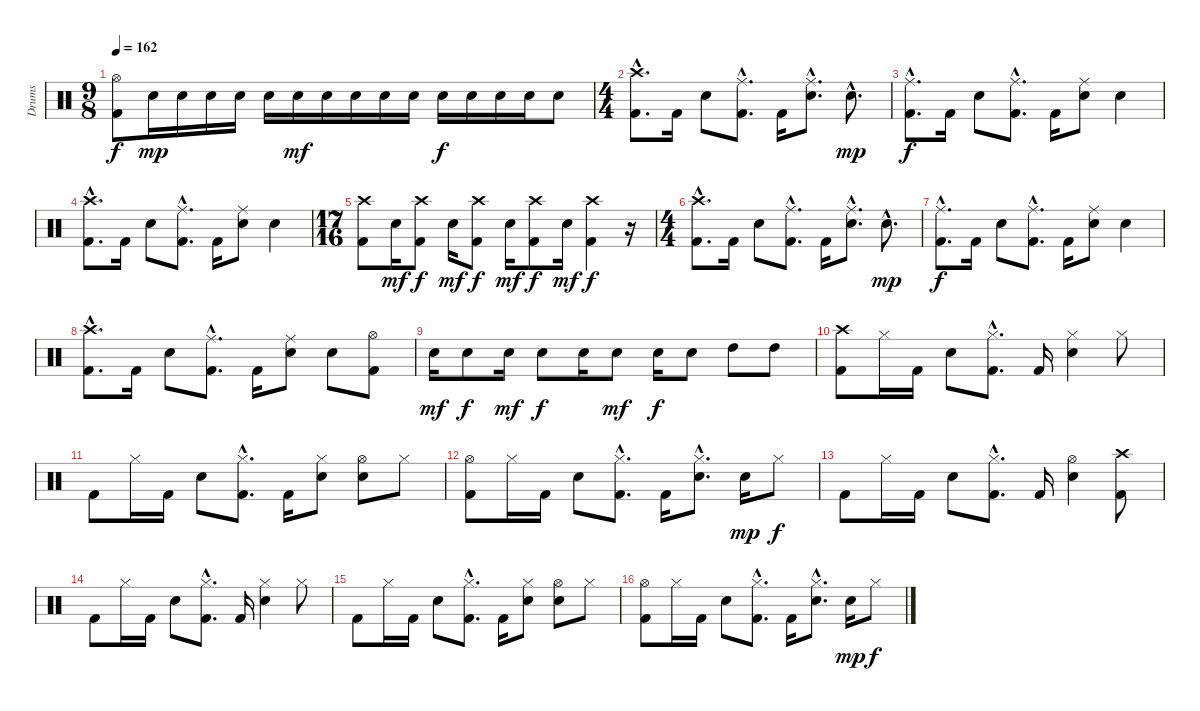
\track ("Drums" "Drums") {instrument percussion}
\staff {score}
\articulation defaults
\ts (9 8)
\tempo 162
\clef neutral
\ks c
("Hi-Hat (open)" "Kick (hit) 2").8{dy f} "Electric Snare (hit)".16{dy mp} "Electric Snare (hit)".16 "Electric Snare (hit)".16 "Electric Snare (hit)".16 "Electric Snare (hit)".16 "Electric Snare (hit)".16{dy mf} "Electric Snare (hit)".16 "Electric Snare (hit)".16 "Electric Snare (hit)".16 "Electric Snare (hit)".16 "Electric Snare (hit)".16{dy f} "Electric Snare (hit)".16 "Electric Snare (hit)".16 "Electric Snare (hit)".16 "Electric Snare (hit)".8 |
\ts (4 4)
("Crash high (hit)"{hac} "Kick (hit) 2"{hac}).8{d} "Kick (hit) 2".16 "Electric Snare (hit)".8 ("Ride (middle)"{hac} "Kick (hit) 2"{hac}).8{d} "Kick (hit) 2".16 ("Ride (middle)"{hac} "Electric Snare (hit)"{hac}).8{d} "Electric Snare (hit)"{hac}.8{d dy mp} |
("Ride (middle)"{hac} "Kick (hit) 2"{hac}).8{d dy f} "Kick (hit) 2".16 "Electric Snare (hit)".8 ("Ride (middle)"{hac} "Kick (hit) 2"{hac}).8{d} "Kick (hit) 2".16 ("Ride (middle)" "Electric Snare (hit)").8 "Electric Snare (hit)".4 |
("Crash high (hit)"{hac} "Kick (hit) 2"{hac}).8{d} "Kick (hit) 2".16 "Electric Snare (hit)".8 ("Ride (middle)"{hac} "Kick (hit) 2"{hac}).8{d} "Kick (hit) 2".16 ("Ride (middle)" "Electric Snare (hit)").8 "Electric Snare (hit)".4 |
\ts (17 16)
("Crash high (hit)" "Kick (hit) 2").8 "Electric Snare (hit)".16{dy mf} ("Crash high (hit)" "Kick (hit) 2").8{dy f} "Electric Snare (hit)".16{dy mf} ("Crash high (hit)" "Kick (hit) 2").8{dy f} "Electric Snare (hit)".16{dy mf} ("Crash high (hit)" "Kick (hit) 2").8{dy f} "Electric Snare (hit)".16{dy mf} ("Crash high (hit)" "Kick (hit) 2").4{dy f} r.16 |
\ts (4 4)
("Crash high (hit)"{hac} "Kick (hit) 2"{hac}).8{d} "Kick (hit) 2".16 "Electric Snare (hit)".8 ("Ride (middle)"{hac} "Kick (hit) 2"{hac}).8{d} "Kick (hit) 2".16 ("Ride (middle)"{hac} "Electric Snare (hit)"{hac}).8{d} "Electric Snare (hit)"{hac}.8{d dy mp} |
("Ride (middle)"{hac} "Kick (hit) 2"{hac}).8{d dy f} "Kick (hit) 2".16 "Electric Snare (hit)".8 ("Ride (middle)"{hac} "Kick (hit) 2"{hac}).8{d} "Kick (hit) 2".16 ("Ride (middle)" "Electric Snare (hit)").8 "Electric Snare (hit)".4 |
("Crash high (hit)"{hac} "Kick (hit) 2"{hac}).8{d} "Kick (hit) 2".16 "Electric Snare (hit)".8 ("Ride (middle)"{hac} "Kick (hit) 2"{hac}).8{d} "Kick (hit) 2".16 ("Ride (middle)" "Electric Snare (hit)").8 "Electric Snare (hit)".8 ("Hi-Hat (open)" "Kick (hit) 2").8 |
"Electric Snare (hit)".16{dy mf} "Electric Snare (hit)".8{dy f} "Electric Snare (hit)".16{dy mf} "Electric Snare (hit)".8{dy f} "Electric Snare (hit)".16 "Electric Snare (hit)".8{dy mf} "Electric Snare (hit)".16{dy f} "Electric Snare (hit)".8 "High Tom (hit)".8 "High Tom (hit)".8 |
("Crash high (hit)" "Kick (hit) 2").8 "Hi-Hat (closed)".16 "Kick (hit) 2".16 "Electric Snare (hit)".8 ("Hi-Hat (closed)"{hac} "Kick (hit) 2"{hac}).8{d} "Kick (hit) 2".16 ("Hi-Hat (closed)" "Electric Snare (hit)").4 "Hi-Hat (closed)".8 |
"Kick (hit) 2".8 "Hi-Hat (closed)".16 "Kick (hit) 2".16 "Electric Snare (hit)".8 ("Hi-Hat (closed)"{hac} "Kick (hit) 2"{hac}).8{d} "Kick (hit) 2".16 ("Hi-Hat (closed)" "Electric Snare (hit)").8 ("Hi-Hat (open)" "Electric Snare (hit)").8 "Hi-Hat (closed)".8 |
("Hi-Hat (open)" "Kick (hit) 2").8 "Hi-Hat (closed)".16 "Kick (hit) 2".16 "Electric Snare (hit)".8 ("Hi-Hat (closed)"{hac} "Kick (hit) 2"{hac}).8{d} "Kick (hit) 2".16 ("Hi-Hat (closed)"{hac} "Electric Snare (hit)"{hac}).8{d} "Electric Snare (hit)".16{dy mp} "Hi-Hat (closed)".8{dy f} |
"Kick (hit) 2".8 "Hi-Hat (closed)".16 "Kick (hit) 2".16 "Electric Snare (hit)".8 ("Hi-Hat (closed)"{hac} "Kick (hit) 2"{hac}).8{d} "Kick (hit) 2".16 ("Hi-Hat (open)" "Electric Snare (hit)").4 ("Crash high (hit)" "Kick (hit) 2").8 |
"Kick (hit) 2".8 "Hi-Hat (closed)".16 "Kick (hit) 2".16 "Electric Snare (hit)".8 ("Hi-Hat (closed)"{hac} "Kick (hit) 2"{hac}).8{d} "Kick (hit) 2".16 ("Hi-Hat (closed)" "Electric Snare (hit)").4 "Hi-Hat (closed)".8 |
"Kick (hit) 2".8 "Hi-Hat (closed)".16 "Kick (hit) 2".16 "Electric Snare (hit)".8 ("Hi-Hat (closed)"{hac} "Kick (hit) 2"{hac}).8{d} "Kick (hit) 2".16 ("Hi-Hat (closed)" "Electric Snare (hit)").8 ("Hi-Hat (open)" "Electric Snare (hit)").8 "Hi-Hat (closed)".8 |
("Hi-Hat (open)" "Kick (hit) 2").8 "Hi-Hat (closed)".16 "Kick (hit) 2".16 "Electric Snare (hit)".8 ("Hi-Hat (closed)"{hac} "Kick (hit) 2"{hac}).8{d} "Kick (hit) 2".16 ("Hi-Hat (closed)"{hac} "Electric Snare (hit)"{hac}).8{d} "Electric Snare (hit)".16{dy mp} "Hi-Hat (closed)".8{dy f}
